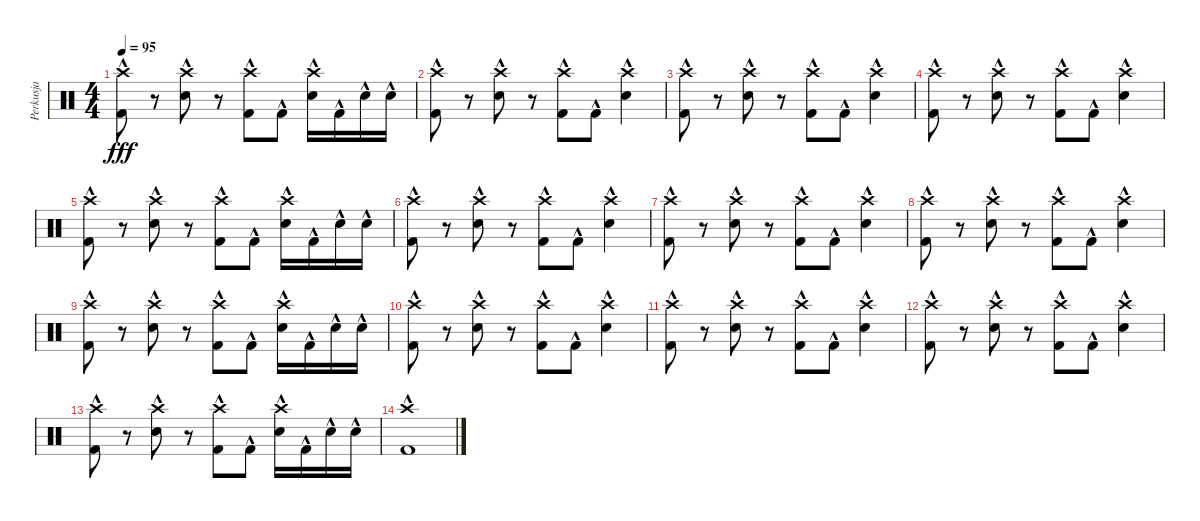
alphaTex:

\track ("Perkusja" "Perkusja") {instrument percussion}
\staff {score}
\articulation defaults
\ts (4 4)
\tempo 95
\clef neutral
\ks c
("Crash high (hit)" "Kick (hit) 2"{hac}).8{dy fff} r.8 ("Crash high (hit)" "Electric Snare (hit)"{hac}).8 r.8 ("Crash high (hit)" "Kick (hit) 2"{hac}).8 "Kick (hit) 2"{hac}.8 ("Crash high (hit)" "Electric Snare (hit)"{hac}).16 "Kick (hit) 2"{hac}.16 "Electric Snare (hit)"{hac}.16 "Electric Snare (hit)"{hac}.16 |
("Crash high (hit)" "Kick (hit) 2"{hac}).8 r.8 ("Crash high (hit)" "Electric Snare (hit)"{hac}).8 r.8 ("Crash high (hit)" "Kick (hit) 2"{hac}).8 "Kick (hit) 2"{hac}.8 ("Crash high (hit)" "Electric Snare (hit)"{hac}).4 |
("Crash high (hit)" "Kick (hit) 2"{hac}).8 r.8 ("Crash high (hit)" "Electric Snare (hit)"{hac}).8 r.8 ("Crash high (hit)" "Kick (hit) 2"{hac}).8 "Kick (hit) 2"{hac}.8 ("Crash high (hit)" "Electric Snare (hit)"{hac}).4 |
("Crash high (hit)" "Kick (hit) 2"{hac}).8 r.8 ("Crash high (hit)" "Electric Snare (hit)"{hac}).8 r.8 ("Crash high (hit)" "Kick (hit) 2"{hac}).8 "Kick (hit) 2"{hac}.8 ("Crash high (hit)" "Electric Snare (hit)"{hac}).4 |
("Crash high (hit)" "Kick (hit) 2"{hac}).8 r.8 ("Crash high (hit)" "Electric Snare (hit)"{hac}).8 r.8 ("Crash high (hit)" "Kick (hit) 2"{hac}).8 "Kick (hit) 2"{hac}.8 ("Crash high (hit)" "Electric Snare (hit)"{hac}).16 "Kick (hit) 2"{hac}.16 "Electric Snare (hit)"{hac}.16 "Electric Snare (hit)"{hac}.16 |
("Crash high (hit)" "Kick (hit) 2"{hac}).8 r.8 ("Crash high (hit)" "Electric Snare (hit)"{hac}).8 r.8 ("Crash high (hit)" "Kick (hit) 2"{hac}).8 "Kick (hit) 2"{hac}.8 ("Crash high (hit)" "Electric Snare (hit)"{hac}).4 |
("Crash high (hit)" "Kick (hit) 2"{hac}).8 r.8 ("Crash high (hit)" "Electric Snare (hit)"{hac}).8 r.8 ("Crash high (hit)" "Kick (hit) 2"{hac}).8 "Kick (hit) 2"{hac}.8 ("Crash high (hit)" "Electric Snare (hit)"{hac}).4 |
("Crash high (hit)" "Kick (hit) 2"{hac}).8 r.8 ("Crash high (hit)" "Electric Snare (hit)"{hac}).8 r.8 ("Crash high (hit)" "Kick (hit) 2"{hac}).8 "Kick (hit) 2"{hac}.8 ("Crash high (hit)" "Electric Snare (hit)"{hac}).4 |
("Crash high (hit)" "Kick (hit) 2"{hac}).8 r.8 ("Crash high (hit)" "Electric Snare (hit)"{hac}).8 r.8 ("Crash high (hit)" "Kick (hit) 2"{hac}).8 "Kick (hit) 2"{hac}.8 ("Crash high (hit)" "Electric Snare (hit)"{hac}).16 "Kick (hit) 2"{hac}.16 "Electric Snare (hit)"{hac}.16 "Electric Snare (hit)"{hac}.16 |
("Crash high (hit)" "Kick (hit) 2"{hac}).8 r.8 ("Crash high (hit)" "Electric Snare (hit)"{hac}).8 r.8 ("Crash high (hit)" "Kick (hit) 2"{hac}).8 "Kick (hit) 2"{hac}.8 ("Crash high (hit)" "Electric Snare (hit)"{hac}).4 |
("Crash high (hit)" "Kick (hit) 2"{hac}).8 r.8 ("Crash high (hit)" "Electric Snare (hit)"{hac}).8 r.8 ("Crash high (hit)" "Kick (hit) 2"{hac}).8 "Kick (hit) 2"{hac}.8 ("Crash high (hit)" "Electric Snare (hit)"{hac}).4 |
("Crash high (hit)" "Kick (hit) 2"{hac}).8 r.8 ("Crash high (hit)" "Electric Snare (hit)"{hac}).8 r.8 ("Crash high (hit)" "Kick (hit) 2"{hac}).8 "Kick (hit) 2"{hac}.8 ("Crash high (hit)" "Electric Snare (hit)"{hac}).4 |
("Crash high (hit)" "Kick (hit) 2"{hac}).8 r.8 ("Crash high (hit)" "Electric Snare (hit)"{hac}).8 r.8 ("Crash high (hit)" "Kick (hit) 2"{hac}).8 "Kick (hit) 2"{hac}.8 ("Crash high (hit)" "Electric Snare (hit)"{hac}).16 "Kick (hit) 2"{hac}.16 "Electric Snare (hit)"{hac}.16 "Electric Snare (hit)"{hac}.16 |
("Crash high (hit)" "Kick (hit) 2"{hac}).1
